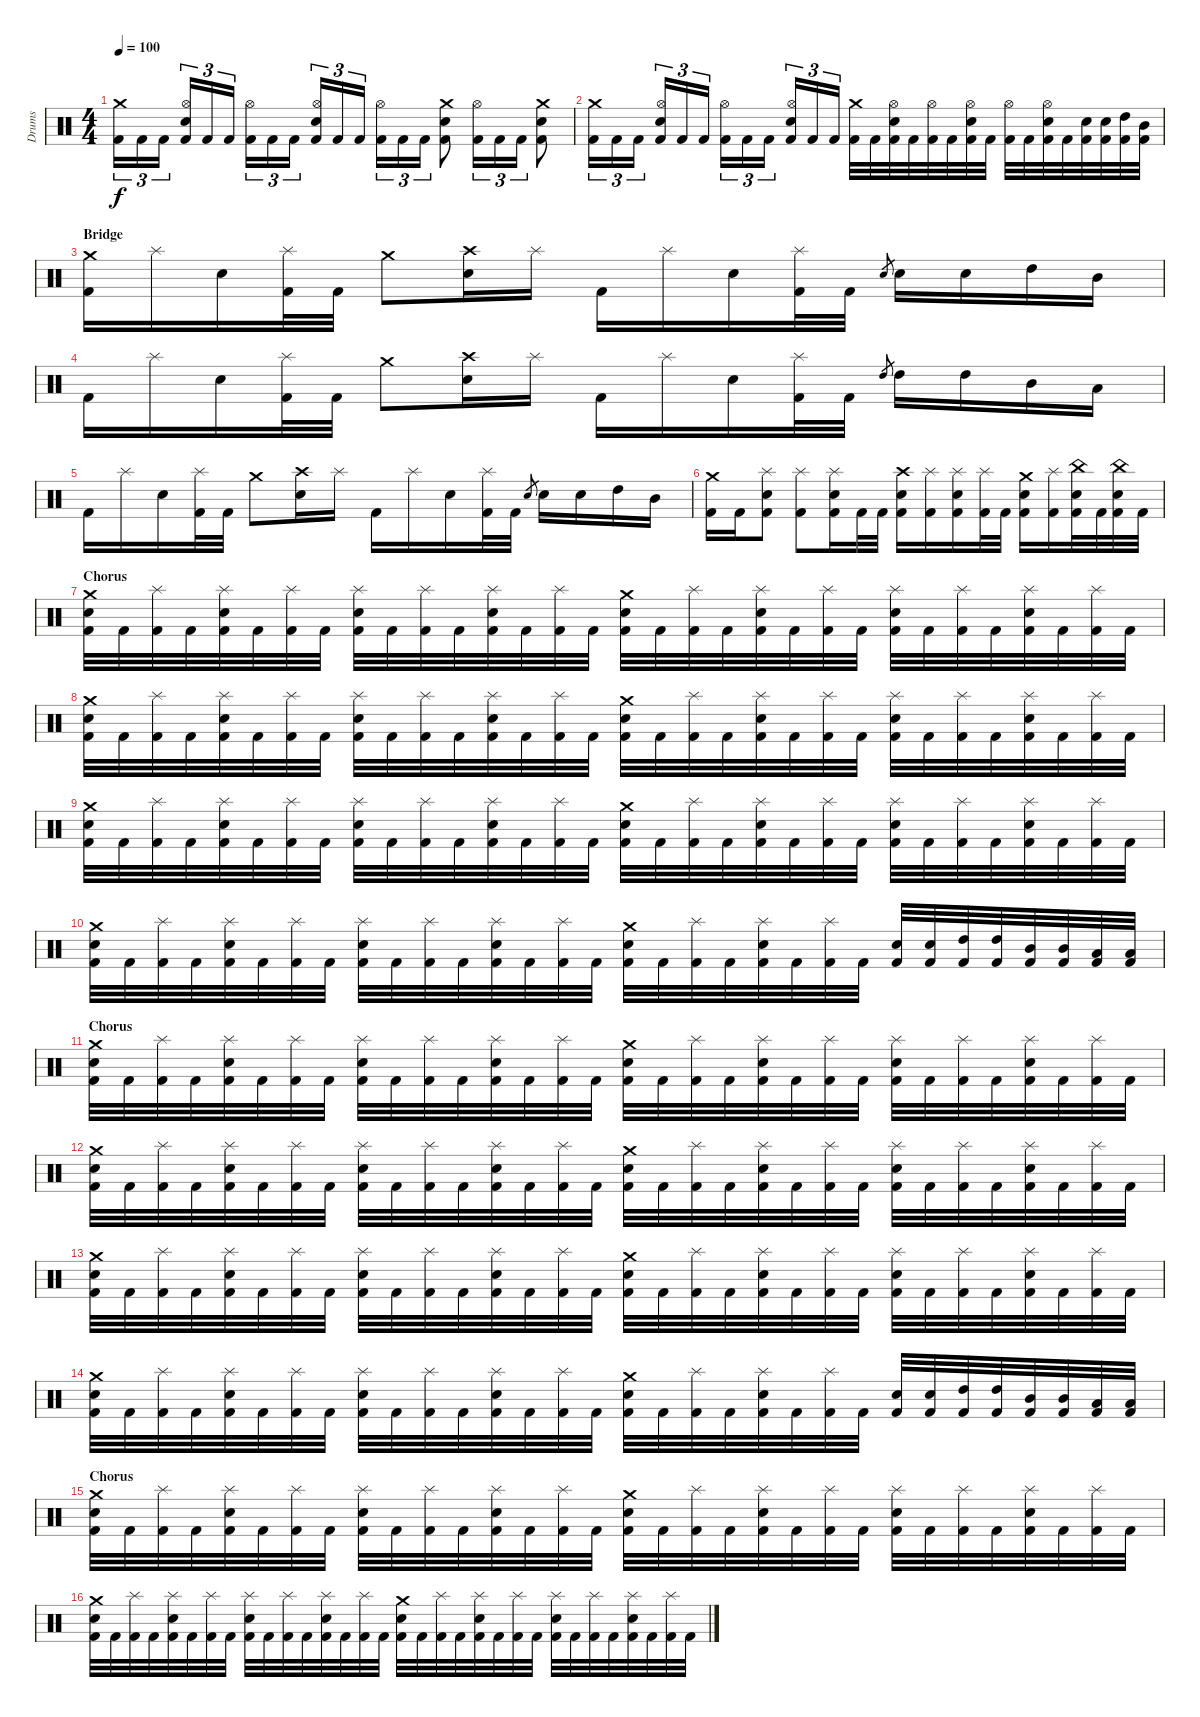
\track ("Drums" "Drums") {instrument percussion}
\staff {score}
\articulation defaults
\ts (4 4)
\tempo 100
\clef neutral
\ks c
("Crash medium (hit)" "Kick (hit) 2").16{tu (3 2) dy f} "Kick (hit) 2".16{tu (3 2)} "Kick (hit) 2".16{tu (3 2)} ("Hi-Hat (open)" "Electric Snare (hit)" "Kick (hit) 2").16{tu (3 2)} "Kick (hit) 2".16{tu (3 2)} "Kick (hit) 2".16{tu (3 2)} ("Hi-Hat (open)" "Kick (hit) 2").16{tu (3 2)} "Kick (hit) 2".16{tu (3 2)} "Kick (hit) 2".16{tu (3 2)} ("Hi-Hat (open)" "Electric Snare (hit)" "Kick (hit) 2").16{tu (3 2)} "Kick (hit) 2".16{tu (3 2)} "Kick (hit) 2".16{tu (3 2)} ("Hi-Hat (open)" "Kick (hit) 2").16{tu (3 2)} "Kick (hit) 2".16{tu (3 2)} "Kick (hit) 2".16{tu (3 2)} ("Crash medium (hit)" "Electric Snare (hit)" "Kick (hit) 2").8 ("Hi-Hat (open)" "Kick (hit) 2").16{tu (3 2)} "Kick (hit) 2".16{tu (3 2)} "Kick (hit) 2".16{tu (3 2)} ("Crash medium (hit)" "Electric Snare (hit)" "Kick (hit) 2").8 |
("Crash medium (hit)" "Kick (hit) 2").16{tu (3 2)} "Kick (hit) 2".16{tu (3 2)} "Kick (hit) 2".16{tu (3 2)} ("Hi-Hat (open)" "Electric Snare (hit)" "Kick (hit) 2").16{tu (3 2)} "Kick (hit) 2".16{tu (3 2)} "Kick (hit) 2".16{tu (3 2)} ("Hi-Hat (open)" "Kick (hit) 2").16{tu (3 2)} "Kick (hit) 2".16{tu (3 2)} "Kick (hit) 2".16{tu (3 2)} ("Hi-Hat (open)" "Electric Snare (hit)" "Kick (hit) 2").16{tu (3 2)} "Kick (hit) 2".16{tu (3 2)} "Kick (hit) 2".16{tu (3 2)} ("Crash medium (hit)" "Kick (hit) 2").32 "Kick (hit) 2".32 ("Hi-Hat (open)" "Electric Snare (hit)" "Kick (hit) 2").32 "Kick (hit) 2".32 ("Hi-Hat (open)" "Kick (hit) 2").32 "Kick (hit) 2".32 ("Hi-Hat (open)" "Electric Snare (hit)" "Kick (hit) 2").32 "Kick (hit) 2".32 ("Hi-Hat (open)" "Kick (hit) 2").32 "Kick (hit) 2".32 ("Hi-Hat (open)" "Electric Snare (hit)" "Kick (hit) 2").32 "Kick (hit) 2".32 ("Electric Snare (hit)" "Kick (hit) 2").32 ("Electric Snare (hit)" "Kick (hit) 2").32 ("High Tom (hit)" "Kick (hit) 2").32 ("Mid Tom (hit)" "Kick (hit) 2").32 |
\section ("" "Bridge")
("Crash medium (hit)" "Kick (hit) 2").16 "Splash (hit)".16 "Electric Snare (hit)".16 ("Splash (hit)" "Kick (hit) 2").32 "Kick (hit) 2".32 "Crash medium (hit)".8 ("Crash high (hit)" "Electric Snare (hit)").16 "Splash (hit)".16 "Kick (hit) 2".16 "Splash (hit)".16 "Electric Snare (hit)".16 ("Splash (hit)" "Kick (hit) 2").32 "Kick (hit) 2".32 "Electric Snare (hit)".8{gr} "Electric Snare (hit)".16 "Electric Snare (hit)".16 "High Tom (hit)".16 "Mid Tom (hit)".16 |
"Kick (hit) 2".16 "Splash (hit)".16 "Electric Snare (hit)".16 ("Splash (hit)" "Kick (hit) 2").32 "Kick (hit) 2".32 "Crash medium (hit)".8 ("Crash high (hit)" "Electric Snare (hit)").16 "Splash (hit)".16 "Kick (hit) 2".16 "Splash (hit)".16 "Electric Snare (hit)".16 ("Splash (hit)" "Kick (hit) 2").32 "Kick (hit) 2".32 "High Tom (hit)".8{gr} "High Tom (hit)".16 "High Tom (hit)".16 "Mid Tom (hit)".16 "Low Tom (hit)".16 |
"Kick (hit) 2".16 "Splash (hit)".16 "Electric Snare (hit)".16 ("Splash (hit)" "Kick (hit) 2").32 "Kick (hit) 2".32 "Crash medium (hit)".8 ("Crash high (hit)" "Electric Snare (hit)").16 "Splash (hit)".16 "Kick (hit) 2".16 "Splash (hit)".16 "Electric Snare (hit)".16 ("Splash (hit)" "Kick (hit) 2").32 "Kick (hit) 2".32 "Electric Snare (hit)".8{gr} "Electric Snare (hit)".16 "Electric Snare (hit)".16 "High Tom (hit)".16 "Mid Tom (hit)".16 |
("Crash medium (hit)" "Kick (hit) 2").16 "Kick (hit) 2".16 ("Splash (hit)" "Electric Snare (hit)" "Kick (hit) 2").8 ("Splash (hit)" "Kick (hit) 2").8 ("Splash (hit)" "Electric Snare (hit)" "Kick (hit) 2").16 "Kick (hit) 2".32 "Kick (hit) 2".32 ("Crash high (hit)" "Electric Snare (hit)" "Kick (hit) 2").16 ("Splash (hit)" "Kick (hit) 2").16 ("Splash (hit)" "Electric Snare (hit)" "Kick (hit) 2").16 ("Splash (hit)" "Kick (hit) 2").32 "Kick (hit) 2".32 ("Crash medium (hit)" "Electric Snare (hit)" "Kick (hit) 2").16 ("Splash (hit)" "Kick (hit) 2").16 ("China (hit)" "Electric Snare (hit)" "Kick (hit) 2").32 "Kick (hit) 2".32 ("China (hit)" "Electric Snare (hit)" "Kick (hit) 2").32 "Kick (hit) 2".32 |
\section ("" "Chorus")
("Crash medium (hit)" "Electric Snare (hit)" "Kick (hit) 2").32 "Kick (hit) 2".32 ("Splash (hit)" "Kick (hit) 2").32 "Kick (hit) 2".32 ("Splash (hit)" "Electric Snare (hit)" "Kick (hit) 2").32 "Kick (hit) 2".32 ("Splash (hit)" "Kick (hit) 2").32 "Kick (hit) 2".32 ("Splash (hit)" "Electric Snare (hit)" "Kick (hit) 2").32 "Kick (hit) 2".32 ("Splash (hit)" "Kick (hit) 2").32 "Kick (hit) 2".32 ("Splash (hit)" "Electric Snare (hit)" "Kick (hit) 2").32 "Kick (hit) 2".32 ("Splash (hit)" "Kick (hit) 2").32 "Kick (hit) 2".32 ("Crash medium (hit)" "Electric Snare (hit)" "Kick (hit) 2").32 "Kick (hit) 2".32 ("Splash (hit)" "Kick (hit) 2").32 "Kick (hit) 2".32 ("Splash (hit)" "Electric Snare (hit)" "Kick (hit) 2").32 "Kick (hit) 2".32 ("Splash (hit)" "Kick (hit) 2").32 "Kick (hit) 2".32 ("Splash (hit)" "Electric Snare (hit)" "Kick (hit) 2").32 "Kick (hit) 2".32 ("Splash (hit)" "Kick (hit) 2").32 "Kick (hit) 2".32 ("Splash (hit)" "Electric Snare (hit)" "Kick (hit) 2").32 "Kick (hit) 2".32 ("Splash (hit)" "Kick (hit) 2").32 "Kick (hit) 2".32 |
("Crash medium (hit)" "Electric Snare (hit)" "Kick (hit) 2").32 "Kick (hit) 2".32 ("Splash (hit)" "Kick (hit) 2").32 "Kick (hit) 2".32 ("Splash (hit)" "Electric Snare (hit)" "Kick (hit) 2").32 "Kick (hit) 2".32 ("Splash (hit)" "Kick (hit) 2").32 "Kick (hit) 2".32 ("Splash (hit)" "Electric Snare (hit)" "Kick (hit) 2").32 "Kick (hit) 2".32 ("Splash (hit)" "Kick (hit) 2").32 "Kick (hit) 2".32 ("Splash (hit)" "Electric Snare (hit)" "Kick (hit) 2").32 "Kick (hit) 2".32 ("Splash (hit)" "Kick (hit) 2").32 "Kick (hit) 2".32 ("Crash medium (hit)" "Electric Snare (hit)" "Kick (hit) 2").32 "Kick (hit) 2".32 ("Splash (hit)" "Kick (hit) 2").32 "Kick (hit) 2".32 ("Splash (hit)" "Electric Snare (hit)" "Kick (hit) 2").32 "Kick (hit) 2".32 ("Splash (hit)" "Kick (hit) 2").32 "Kick (hit) 2".32 ("Splash (hit)" "Electric Snare (hit)" "Kick (hit) 2").32 "Kick (hit) 2".32 ("Splash (hit)" "Kick (hit) 2").32 "Kick (hit) 2".32 ("Splash (hit)" "Electric Snare (hit)" "Kick (hit) 2").32 "Kick (hit) 2".32 ("Splash (hit)" "Kick (hit) 2").32 "Kick (hit) 2".32 |
("Crash medium (hit)" "Electric Snare (hit)" "Kick (hit) 2").32 "Kick (hit) 2".32 ("Splash (hit)" "Kick (hit) 2").32 "Kick (hit) 2".32 ("Splash (hit)" "Electric Snare (hit)" "Kick (hit) 2").32 "Kick (hit) 2".32 ("Splash (hit)" "Kick (hit) 2").32 "Kick (hit) 2".32 ("Splash (hit)" "Electric Snare (hit)" "Kick (hit) 2").32 "Kick (hit) 2".32 ("Splash (hit)" "Kick (hit) 2").32 "Kick (hit) 2".32 ("Splash (hit)" "Electric Snare (hit)" "Kick (hit) 2").32 "Kick (hit) 2".32 ("Splash (hit)" "Kick (hit) 2").32 "Kick (hit) 2".32 ("Crash medium (hit)" "Electric Snare (hit)" "Kick (hit) 2").32 "Kick (hit) 2".32 ("Splash (hit)" "Kick (hit) 2").32 "Kick (hit) 2".32 ("Splash (hit)" "Electric Snare (hit)" "Kick (hit) 2").32 "Kick (hit) 2".32 ("Splash (hit)" "Kick (hit) 2").32 "Kick (hit) 2".32 ("Splash (hit)" "Electric Snare (hit)" "Kick (hit) 2").32 "Kick (hit) 2".32 ("Splash (hit)" "Kick (hit) 2").32 "Kick (hit) 2".32 ("Splash (hit)" "Electric Snare (hit)" "Kick (hit) 2").32 "Kick (hit) 2".32 ("Splash (hit)" "Kick (hit) 2").32 "Kick (hit) 2".32 |
("Crash medium (hit)" "Electric Snare (hit)" "Kick (hit) 2").32 "Kick (hit) 2".32 ("Splash (hit)" "Kick (hit) 2").32 "Kick (hit) 2".32 ("Splash (hit)" "Electric Snare (hit)" "Kick (hit) 2").32 "Kick (hit) 2".32 ("Splash (hit)" "Kick (hit) 2").32 "Kick (hit) 2".32 ("Splash (hit)" "Electric Snare (hit)" "Kick (hit) 2").32 "Kick (hit) 2".32 ("Splash (hit)" "Kick (hit) 2").32 "Kick (hit) 2".32 ("Splash (hit)" "Electric Snare (hit)" "Kick (hit) 2").32 "Kick (hit) 2".32 ("Splash (hit)" "Kick (hit) 2").32 "Kick (hit) 2".32 ("Crash medium (hit)" "Electric Snare (hit)" "Kick (hit) 2").32 "Kick (hit) 2".32 ("Splash (hit)" "Kick (hit) 2").32 "Kick (hit) 2".32 ("Splash (hit)" "Electric Snare (hit)" "Kick (hit) 2").32 "Kick (hit) 2".32 ("Splash (hit)" "Kick (hit) 2").32 "Kick (hit) 2".32 ("Electric Snare (hit)" "Kick (hit) 2").32 ("Electric Snare (hit)" "Kick (hit) 2").32 ("High Tom (hit)" "Kick (hit) 2").32 ("High Tom (hit)" "Kick (hit) 2").32 ("Mid Tom (hit)" "Kick (hit) 2").32 ("Mid Tom (hit)" "Kick (hit) 2").32 ("Low Tom (hit)" "Kick (hit) 2").32 ("Low Tom (hit)" "Kick (hit) 2").32 |
\section ("" "Chorus")
("Crash medium (hit)" "Electric Snare (hit)" "Kick (hit) 2").32 "Kick (hit) 2".32 ("Splash (hit)" "Kick (hit) 2").32 "Kick (hit) 2".32 ("Splash (hit)" "Electric Snare (hit)" "Kick (hit) 2").32 "Kick (hit) 2".32 ("Splash (hit)" "Kick (hit) 2").32 "Kick (hit) 2".32 ("Splash (hit)" "Electric Snare (hit)" "Kick (hit) 2").32 "Kick (hit) 2".32 ("Splash (hit)" "Kick (hit) 2").32 "Kick (hit) 2".32 ("Splash (hit)" "Electric Snare (hit)" "Kick (hit) 2").32 "Kick (hit) 2".32 ("Splash (hit)" "Kick (hit) 2").32 "Kick (hit) 2".32 ("Crash medium (hit)" "Electric Snare (hit)" "Kick (hit) 2").32 "Kick (hit) 2".32 ("Splash (hit)" "Kick (hit) 2").32 "Kick (hit) 2".32 ("Splash (hit)" "Electric Snare (hit)" "Kick (hit) 2").32 "Kick (hit) 2".32 ("Splash (hit)" "Kick (hit) 2").32 "Kick (hit) 2".32 ("Splash (hit)" "Electric Snare (hit)" "Kick (hit) 2").32 "Kick (hit) 2".32 ("Splash (hit)" "Kick (hit) 2").32 "Kick (hit) 2".32 ("Splash (hit)" "Electric Snare (hit)" "Kick (hit) 2").32 "Kick (hit) 2".32 ("Splash (hit)" "Kick (hit) 2").32 "Kick (hit) 2".32 |
("Crash medium (hit)" "Electric Snare (hit)" "Kick (hit) 2").32 "Kick (hit) 2".32 ("Splash (hit)" "Kick (hit) 2").32 "Kick (hit) 2".32 ("Splash (hit)" "Electric Snare (hit)" "Kick (hit) 2").32 "Kick (hit) 2".32 ("Splash (hit)" "Kick (hit) 2").32 "Kick (hit) 2".32 ("Splash (hit)" "Electric Snare (hit)" "Kick (hit) 2").32 "Kick (hit) 2".32 ("Splash (hit)" "Kick (hit) 2").32 "Kick (hit) 2".32 ("Splash (hit)" "Electric Snare (hit)" "Kick (hit) 2").32 "Kick (hit) 2".32 ("Splash (hit)" "Kick (hit) 2").32 "Kick (hit) 2".32 ("Crash medium (hit)" "Electric Snare (hit)" "Kick (hit) 2").32 "Kick (hit) 2".32 ("Splash (hit)" "Kick (hit) 2").32 "Kick (hit) 2".32 ("Splash (hit)" "Electric Snare (hit)" "Kick (hit) 2").32 "Kick (hit) 2".32 ("Splash (hit)" "Kick (hit) 2").32 "Kick (hit) 2".32 ("Splash (hit)" "Electric Snare (hit)" "Kick (hit) 2").32 "Kick (hit) 2".32 ("Splash (hit)" "Kick (hit) 2").32 "Kick (hit) 2".32 ("Splash (hit)" "Electric Snare (hit)" "Kick (hit) 2").32 "Kick (hit) 2".32 ("Splash (hit)" "Kick (hit) 2").32 "Kick (hit) 2".32 |
("Crash medium (hit)" "Electric Snare (hit)" "Kick (hit) 2").32 "Kick (hit) 2".32 ("Splash (hit)" "Kick (hit) 2").32 "Kick (hit) 2".32 ("Splash (hit)" "Electric Snare (hit)" "Kick (hit) 2").32 "Kick (hit) 2".32 ("Splash (hit)" "Kick (hit) 2").32 "Kick (hit) 2".32 ("Splash (hit)" "Electric Snare (hit)" "Kick (hit) 2").32 "Kick (hit) 2".32 ("Splash (hit)" "Kick (hit) 2").32 "Kick (hit) 2".32 ("Splash (hit)" "Electric Snare (hit)" "Kick (hit) 2").32 "Kick (hit) 2".32 ("Splash (hit)" "Kick (hit) 2").32 "Kick (hit) 2".32 ("Crash medium (hit)" "Electric Snare (hit)" "Kick (hit) 2").32 "Kick (hit) 2".32 ("Splash (hit)" "Kick (hit) 2").32 "Kick (hit) 2".32 ("Splash (hit)" "Electric Snare (hit)" "Kick (hit) 2").32 "Kick (hit) 2".32 ("Splash (hit)" "Kick (hit) 2").32 "Kick (hit) 2".32 ("Splash (hit)" "Electric Snare (hit)" "Kick (hit) 2").32 "Kick (hit) 2".32 ("Splash (hit)" "Kick (hit) 2").32 "Kick (hit) 2".32 ("Splash (hit)" "Electric Snare (hit)" "Kick (hit) 2").32 "Kick (hit) 2".32 ("Splash (hit)" "Kick (hit) 2").32 "Kick (hit) 2".32 |
("Crash medium (hit)" "Electric Snare (hit)" "Kick (hit) 2").32 "Kick (hit) 2".32 ("Splash (hit)" "Kick (hit) 2").32 "Kick (hit) 2".32 ("Splash (hit)" "Electric Snare (hit)" "Kick (hit) 2").32 "Kick (hit) 2".32 ("Splash (hit)" "Kick (hit) 2").32 "Kick (hit) 2".32 ("Splash (hit)" "Electric Snare (hit)" "Kick (hit) 2").32 "Kick (hit) 2".32 ("Splash (hit)" "Kick (hit) 2").32 "Kick (hit) 2".32 ("Splash (hit)" "Electric Snare (hit)" "Kick (hit) 2").32 "Kick (hit) 2".32 ("Splash (hit)" "Kick (hit) 2").32 "Kick (hit) 2".32 ("Crash medium (hit)" "Electric Snare (hit)" "Kick (hit) 2").32 "Kick (hit) 2".32 ("Splash (hit)" "Kick (hit) 2").32 "Kick (hit) 2".32 ("Splash (hit)" "Electric Snare (hit)" "Kick (hit) 2").32 "Kick (hit) 2".32 ("Splash (hit)" "Kick (hit) 2").32 "Kick (hit) 2".32 ("Electric Snare (hit)" "Kick (hit) 2").32 ("Electric Snare (hit)" "Kick (hit) 2").32 ("High Tom (hit)" "Kick (hit) 2").32 ("High Tom (hit)" "Kick (hit) 2").32 ("Mid Tom (hit)" "Kick (hit) 2").32 ("Mid Tom (hit)" "Kick (hit) 2").32 ("Low Tom (hit)" "Kick (hit) 2").32 ("Low Tom (hit)" "Kick (hit) 2").32 |
\section ("" "Chorus")
("Crash medium (hit)" "Electric Snare (hit)" "Kick (hit) 2").32 "Kick (hit) 2".32 ("Splash (hit)" "Kick (hit) 2").32 "Kick (hit) 2".32 ("Splash (hit)" "Electric Snare (hit)" "Kick (hit) 2").32 "Kick (hit) 2".32 ("Splash (hit)" "Kick (hit) 2").32 "Kick (hit) 2".32 ("Splash (hit)" "Electric Snare (hit)" "Kick (hit) 2").32{volume 14} "Kick (hit) 2".32 ("Splash (hit)" "Kick (hit) 2").32 "Kick (hit) 2".32 ("Splash (hit)" "Electric Snare (hit)" "Kick (hit) 2").32 "Kick (hit) 2".32 ("Splash (hit)" "Kick (hit) 2").32 "Kick (hit) 2".32 ("Crash medium (hit)" "Electric Snare (hit)" "Kick (hit) 2").32 "Kick (hit) 2".32 ("Splash (hit)" "Kick (hit) 2").32 "Kick (hit) 2".32 ("Splash (hit)" "Electric Snare (hit)" "Kick (hit) 2").32 "Kick (hit) 2".32 ("Splash (hit)" "Kick (hit) 2").32 "Kick (hit) 2".32 ("Splash (hit)" "Electric Snare (hit)" "Kick (hit) 2").32{volume 12} "Kick (hit) 2".32 ("Splash (hit)" "Kick (hit) 2").32 "Kick (hit) 2".32 ("Splash (hit)" "Electric Snare (hit)" "Kick (hit) 2").32 "Kick (hit) 2".32 ("Splash (hit)" "Kick (hit) 2").32 "Kick (hit) 2".32 |
("Crash medium (hit)" "Electric Snare (hit)" "Kick (hit) 2").32 "Kick (hit) 2".32 ("Splash (hit)" "Kick (hit) 2").32 "Kick (hit) 2".32 ("Splash (hit)" "Electric Snare (hit)" "Kick (hit) 2").32 "Kick (hit) 2".32 ("Splash (hit)" "Kick (hit) 2").32 "Kick (hit) 2".32 ("Splash (hit)" "Electric Snare (hit)" "Kick (hit) 2").32{volume 10} "Kick (hit) 2".32 ("Splash (hit)" "Kick (hit) 2").32 "Kick (hit) 2".32 ("Splash (hit)" "Electric Snare (hit)" "Kick (hit) 2").32 "Kick (hit) 2".32 ("Splash (hit)" "Kick (hit) 2").32 "Kick (hit) 2".32 ("Crash medium (hit)" "Electric Snare (hit)" "Kick (hit) 2").32 "Kick (hit) 2".32 ("Splash (hit)" "Kick (hit) 2").32 "Kick (hit) 2".32 ("Splash (hit)" "Electric Snare (hit)" "Kick (hit) 2").32 "Kick (hit) 2".32 ("Splash (hit)" "Kick (hit) 2").32 "Kick (hit) 2".32 ("Splash (hit)" "Electric Snare (hit)" "Kick (hit) 2").32{volume 8} "Kick (hit) 2".32 ("Splash (hit)" "Kick (hit) 2").32 "Kick (hit) 2".32 ("Splash (hit)" "Electric Snare (hit)" "Kick (hit) 2").32 "Kick (hit) 2".32 ("Splash (hit)" "Kick (hit) 2").32 "Kick (hit) 2".32
